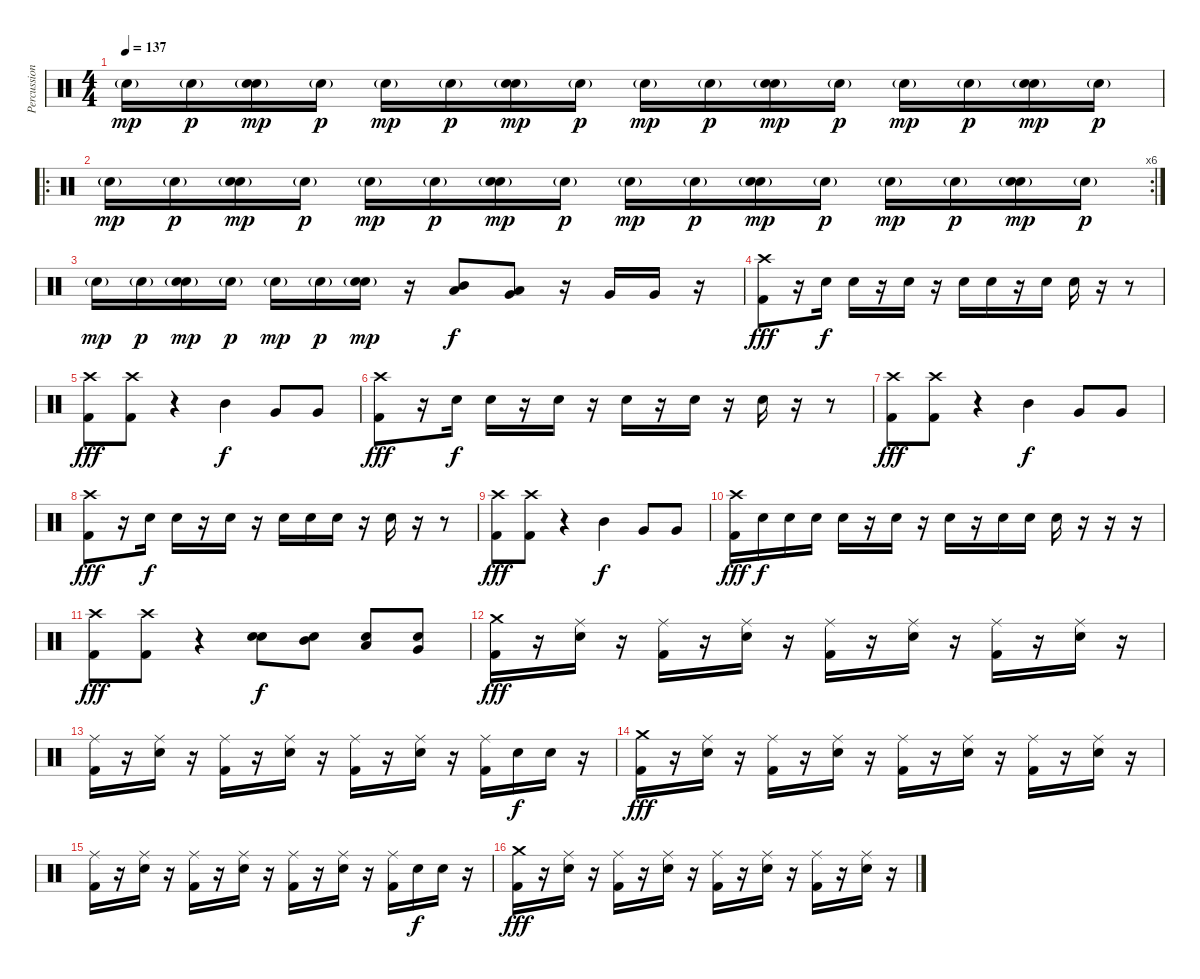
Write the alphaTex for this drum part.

\track ("Percussion" "Percussion") {instrument percussion}
\staff {score}
\articulation defaults
\ts (4 4)
\tempo 137
\clef neutral
\ks c "Electric Snare (hit)"{g}.16{dy mp} "Electric Snare (hit)"{g}.16{dy p}
("Electric Snare (hit)"{g} "Electric Snare (hit)").16{dy mp} "Electric Snare (hit)"{g}.16{dy p} "Electric Snare (hit)"{g}.16{dy mp} "Electric Snare (hit)"{g}.16{dy p} ("Electric Snare (hit)"{g} "Electric Snare (hit)").16{dy mp} "Electric Snare (hit)"{g}.16{dy p} "Electric Snare (hit)"{g}.16{dy mp} "Electric Snare (hit)"{g}.16{dy p} ("Electric Snare (hit)"{g} "Electric Snare (hit)").16{dy mp} "Electric Snare (hit)"{g}.16{dy p} "Electric Snare (hit)"{g}.16{dy mp} "Electric Snare (hit)"{g}.16{dy p} ("Electric Snare (hit)"{g} "Electric Snare (hit)").16{dy mp} "Electric Snare (hit)"{g}.16{dy p} |
\ro
\rc 6 "Electric Snare (hit)"{g}.16{dy mp} "Electric Snare (hit)"{g}.16{dy p}
("Electric Snare (hit)"{g} "Electric Snare (hit)").16{dy mp} "Electric Snare (hit)"{g}.16{dy p} "Electric Snare (hit)"{g}.16{dy mp} "Electric Snare (hit)"{g}.16{dy p} ("Electric Snare (hit)"{g} "Electric Snare (hit)").16{dy mp} "Electric Snare (hit)"{g}.16{dy p} "Electric Snare (hit)"{g}.16{dy mp} "Electric Snare (hit)"{g}.16{dy p} ("Electric Snare (hit)"{g} "Electric Snare (hit)").16{dy mp} "Electric Snare (hit)"{g}.16{dy p} "Electric Snare (hit)"{g}.16{dy mp} "Electric Snare (hit)"{g}.16{dy p} ("Electric Snare (hit)"{g} "Electric Snare (hit)").16{dy mp} "Electric Snare (hit)"{g}.16{dy p} |
"Electric Snare (hit)"{g}.16{dy mp} "Electric Snare (hit)"{g}.16{dy p} ("Electric Snare (hit)"{g} "Electric Snare (hit)").16{dy mp} "Electric Snare (hit)"{g}.16{dy p} "Electric Snare (hit)"{g}.16{dy mp} "Electric Snare (hit)"{g}.16{dy p} ("Electric Snare (hit)"{g} "Electric Snare (hit)").16{dy mp} r.16 ("Mid Tom (hit)" "Low Tom (hit)").8{bu 120 dy f} ("Low Tom (hit)" "Very Low Tom (hit)").8{bu 120} r.16 "Very Low Tom (hit)".16 "Very Low Tom (hit)".16 r.16 |
("Crash high (hit)" "Kick (hit) 2").8{dy fff} r.16 "Electric Snare (hit)".16{dy f} "Electric Snare (hit)".16 r.16 "Electric Snare (hit)".16 r.16 "Electric Snare (hit)".16 "Electric Snare (hit)".16 r.16 "Electric Snare (hit)".16 "Electric Snare (hit)".16 r.16 r.8 |
("Crash high (hit)" "Kick (hit) 2").8{dy fff} ("Crash high (hit)" "Kick (hit) 2").8 r.4 "Mid Tom (hit)".4{dy f} "Very Low Tom (hit)".8 "Very Low Tom (hit)".8 |
("Crash high (hit)" "Kick (hit) 2").8{dy fff} r.16 "Electric Snare (hit)".16{dy f} "Electric Snare (hit)".16 r.16 "Electric Snare (hit)".16 r.16 "Electric Snare (hit)".16 r.16 "Electric Snare (hit)".16 r.16 "Electric Snare (hit)".16 r.16 r.8 |
("Crash high (hit)" "Kick (hit) 2").8{dy fff} ("Crash high (hit)" "Kick (hit) 2").8 r.4 "Mid Tom (hit)".4{dy f} "Very Low Tom (hit)".8 "Very Low Tom (hit)".8 |
("Crash high (hit)" "Kick (hit) 2").8{dy fff} r.16 "Electric Snare (hit)".16{dy f} "Electric Snare (hit)".16 r.16 "Electric Snare (hit)".16 r.16 "Electric Snare (hit)".16 "Electric Snare (hit)".16 "Electric Snare (hit)".16 r.16 "Electric Snare (hit)".16 r.16 r.8 |
("Crash high (hit)" "Kick (hit) 2").8{dy fff} ("Crash high (hit)" "Kick (hit) 2").8 r.4 "Mid Tom (hit)".4{dy f} "Very Low Tom (hit)".8 "Very Low Tom (hit)".8 |
("Crash high (hit)" "Kick (hit) 2").16{dy fff} "Electric Snare (hit)".16{dy f} "Electric Snare (hit)".16 "Electric Snare (hit)".16 "Electric Snare (hit)".16 r.16 "Electric Snare (hit)".16 r.16 "Electric Snare (hit)".16 r.16 "Electric Snare (hit)".16 "Electric Snare (hit)".16 "Electric Snare (hit)".16 r.16 r.16 r.16 |
("Crash high (hit)" "Kick (hit) 2").8{dy fff} ("Crash high (hit)" "Kick (hit) 2").8 r.4 ("Electric Snare (hit)" "Electric Snare (hit)").8{bd 120 dy f} ("Mid Tom (hit)" "Electric Snare (hit)").8 ("Low Tom (hit)" "Electric Snare (hit)").8 ("Very Low Tom (hit)" "Electric Snare (hit)").8 |
("Crash medium (hit)" "Kick (hit) 2").16{dy fff} r.16 ("Ride (middle)" "Electric Snare (hit)").16 r.16 ("Ride (middle)" "Kick (hit) 2").16 r.16 ("Ride (middle)" "Electric Snare (hit)").16 r.16 ("Ride (middle)" "Kick (hit) 2").16 r.16 ("Ride (middle)" "Electric Snare (hit)").16 r.16 ("Ride (middle)" "Kick (hit) 2").16 r.16 ("Ride (middle)" "Electric Snare (hit)").16 r.16 |
("Ride (middle)" "Kick (hit) 2").16 r.16 ("Ride (middle)" "Electric Snare (hit)").16 r.16 ("Ride (middle)" "Kick (hit) 2").16 r.16 ("Ride (middle)" "Electric Snare (hit)").16 r.16 ("Ride (middle)" "Kick (hit) 2").16 r.16 ("Ride (middle)" "Electric Snare (hit)").16 r.16 ("Ride (middle)" "Kick (hit) 2").16 "Electric Snare (hit)".16{dy f} "Electric Snare (hit)".16 r.16 |
("Crash medium (hit)" "Kick (hit) 2").16{dy fff} r.16 ("Ride (middle)" "Electric Snare (hit)").16 r.16 ("Ride (middle)" "Kick (hit) 2").16 r.16 ("Ride (middle)" "Electric Snare (hit)").16 r.16 ("Ride (middle)" "Kick (hit) 2").16 r.16 ("Ride (middle)" "Electric Snare (hit)").16 r.16 ("Ride (middle)" "Kick (hit) 2").16 r.16 ("Ride (middle)" "Electric Snare (hit)").16 r.16 |
("Ride (middle)" "Kick (hit) 2").16 r.16 ("Ride (middle)" "Electric Snare (hit)").16 r.16 ("Ride (middle)" "Kick (hit) 2").16 r.16 ("Ride (middle)" "Electric Snare (hit)").16 r.16 ("Ride (middle)" "Kick (hit) 2").16 r.16 ("Ride (middle)" "Electric Snare (hit)").16 r.16 ("Ride (middle)" "Kick (hit) 2").16 "Electric Snare (hit)".16{dy f} "Electric Snare (hit)".16 r.16 |
("Crash medium (hit)" "Kick (hit) 2").16{dy fff} r.16 ("Ride (middle)" "Electric Snare (hit)").16 r.16 ("Ride (middle)" "Kick (hit) 2").16 r.16 ("Ride (middle)" "Electric Snare (hit)").16 r.16 ("Ride (middle)" "Kick (hit) 2").16 r.16 ("Ride (middle)" "Electric Snare (hit)").16 r.16 ("Ride (middle)" "Kick (hit) 2").16 r.16 ("Ride (middle)" "Electric Snare (hit)").16 r.16
